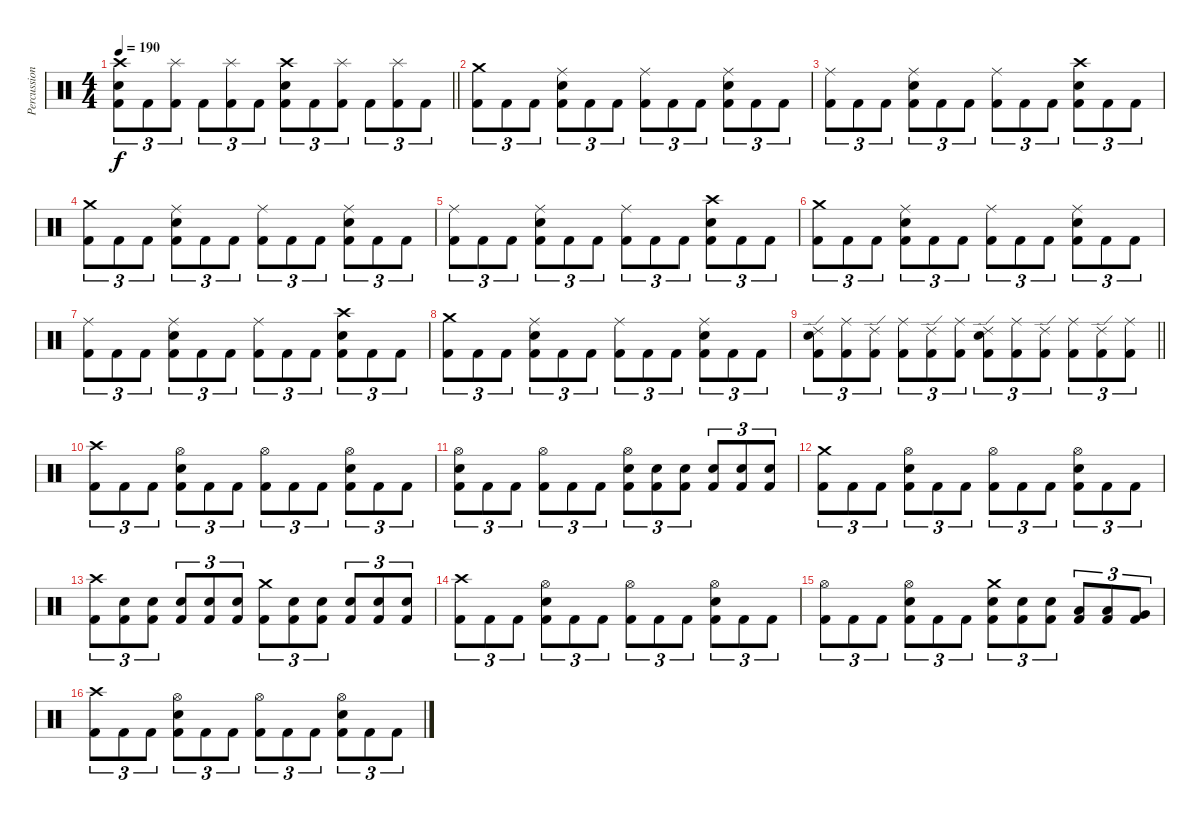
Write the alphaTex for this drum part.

\track ("Percussion" "Percussion") {instrument percussion}
\staff {score}
\articulation defaults
\ts (4 4)
\tempo 190
\clef neutral
\barLineRight lightlight
\ks c
("Crash high (hit)" "Snare (hit) 2" "Kick (hit) 2").8{tu (3 2) dy f} "Kick (hit) 2".8{tu (3 2)} ("Splash (hit)" "Kick (hit) 2").8{tu (3 2)} "Kick (hit) 2".8{tu (3 2)} ("Splash (hit)" "Kick (hit) 2").8{tu (3 2)} "Kick (hit) 2".8{tu (3 2)} ("Crash high (hit)" "Snare (hit) 2" "Kick (hit) 2").8{tu (3 2)} "Kick (hit) 2".8{tu (3 2)} ("Splash (hit)" "Kick (hit) 2").8{tu (3 2)} "Kick (hit) 2".8{tu (3 2)} ("Splash (hit)" "Kick (hit) 2").8{tu (3 2)} "Kick (hit) 2".8{tu (3 2)} |
("Crash medium (hit)" "Kick (hit) 2").8{tu (3 2)} "Kick (hit) 2".8{tu (3 2)} "Kick (hit) 2".8{tu (3 2)} ("Ride (middle)" "Snare (hit) 2" "Kick (hit) 2").8{tu (3 2)} "Kick (hit) 2".8{tu (3 2)} "Kick (hit) 2".8{tu (3 2)} ("Ride (middle)" "Kick (hit) 2").8{tu (3 2)} "Kick (hit) 2".8{tu (3 2)} "Kick (hit) 2".8{tu (3 2)} ("Ride (middle)" "Snare (hit) 2" "Kick (hit) 2").8{tu (3 2)} "Kick (hit) 2".8{tu (3 2)} "Kick (hit) 2".8{tu (3 2)} |
("Ride (middle)" "Kick (hit) 2").8{tu (3 2)} "Kick (hit) 2".8{tu (3 2)} "Kick (hit) 2".8{tu (3 2)} ("Ride (middle)" "Snare (hit) 2" "Kick (hit) 2").8{tu (3 2)} "Kick (hit) 2".8{tu (3 2)} "Kick (hit) 2".8{tu (3 2)} ("Ride (middle)" "Kick (hit) 2").8{tu (3 2)} "Kick (hit) 2".8{tu (3 2)} "Kick (hit) 2".8{tu (3 2)} ("Crash high (hit)" "Snare (hit) 2" "Kick (hit) 2").8{tu (3 2)} "Kick (hit) 2".8{tu (3 2)} "Kick (hit) 2".8{tu (3 2)} |
("Crash medium (hit)" "Kick (hit) 2").8{tu (3 2)} "Kick (hit) 2".8{tu (3 2)} "Kick (hit) 2".8{tu (3 2)} ("Ride (middle)" "Snare (hit) 2" "Kick (hit) 2").8{tu (3 2)} "Kick (hit) 2".8{tu (3 2)} "Kick (hit) 2".8{tu (3 2)} ("Ride (middle)" "Kick (hit) 2").8{tu (3 2)} "Kick (hit) 2".8{tu (3 2)} "Kick (hit) 2".8{tu (3 2)} ("Ride (middle)" "Snare (hit) 2" "Kick (hit) 2").8{tu (3 2)} "Kick (hit) 2".8{tu (3 2)} "Kick (hit) 2".8{tu (3 2)} |
("Ride (middle)" "Kick (hit) 2").8{tu (3 2)} "Kick (hit) 2".8{tu (3 2)} "Kick (hit) 2".8{tu (3 2)} ("Ride (middle)" "Snare (hit) 2" "Kick (hit) 2").8{tu (3 2)} "Kick (hit) 2".8{tu (3 2)} "Kick (hit) 2".8{tu (3 2)} ("Ride (middle)" "Kick (hit) 2").8{tu (3 2)} "Kick (hit) 2".8{tu (3 2)} "Kick (hit) 2".8{tu (3 2)} ("Crash high (hit)" "Snare (hit) 2" "Kick (hit) 2").8{tu (3 2)} "Kick (hit) 2".8{tu (3 2)} "Kick (hit) 2".8{tu (3 2)} |
("Crash medium (hit)" "Kick (hit) 2").8{tu (3 2)} "Kick (hit) 2".8{tu (3 2)} "Kick (hit) 2".8{tu (3 2)} ("Ride (middle)" "Snare (hit) 2" "Kick (hit) 2").8{tu (3 2)} "Kick (hit) 2".8{tu (3 2)} "Kick (hit) 2".8{tu (3 2)} ("Ride (middle)" "Kick (hit) 2").8{tu (3 2)} "Kick (hit) 2".8{tu (3 2)} "Kick (hit) 2".8{tu (3 2)} ("Ride (middle)" "Snare (hit) 2" "Kick (hit) 2").8{tu (3 2)} "Kick (hit) 2".8{tu (3 2)} "Kick (hit) 2".8{tu (3 2)} |
("Ride (middle)" "Kick (hit) 2").8{tu (3 2)} "Kick (hit) 2".8{tu (3 2)} "Kick (hit) 2".8{tu (3 2)} ("Ride (middle)" "Snare (hit) 2" "Kick (hit) 2").8{tu (3 2)} "Kick (hit) 2".8{tu (3 2)} "Kick (hit) 2".8{tu (3 2)} ("Ride (middle)" "Kick (hit) 2").8{tu (3 2)} "Kick (hit) 2".8{tu (3 2)} "Kick (hit) 2".8{tu (3 2)} ("Crash high (hit)" "Snare (hit) 2" "Kick (hit) 2").8{tu (3 2)} "Kick (hit) 2".8{tu (3 2)} "Kick (hit) 2".8{tu (3 2)} |
("Crash medium (hit)" "Kick (hit) 2").8{tu (3 2)} "Kick (hit) 2".8{tu (3 2)} "Kick (hit) 2".8{tu (3 2)} ("Ride (middle)" "Snare (hit) 2" "Kick (hit) 2").8{tu (3 2)} "Kick (hit) 2".8{tu (3 2)} "Kick (hit) 2".8{tu (3 2)} ("Ride (middle)" "Kick (hit) 2").8{tu (3 2)} "Kick (hit) 2".8{tu (3 2)} "Kick (hit) 2".8{tu (3 2)} ("Ride (middle)" "Snare (hit) 2" "Kick (hit) 2").8{tu (3 2)} "Kick (hit) 2".8{tu (3 2)} "Kick (hit) 2".8{tu (3 2)} |
\barLineRight lightlight
("Ride (edge) 2" "Snare (hit) 2" "Kick (hit) 2").8{tu (3 2)} ("Ride (middle)" "Kick (hit) 2").8{tu (3 2)} ("Ride (edge) 2" "Kick (hit) 2").8{tu (3 2)} ("Ride (middle)" "Kick (hit) 2").8{tu (3 2)} ("Ride (edge) 2" "Kick (hit) 2").8{tu (3 2)} ("Ride (middle)" "Kick (hit) 2").8{tu (3 2)} ("Ride (edge) 2" "Snare (hit) 2" "Kick (hit) 2").8{tu (3 2)} ("Ride (middle)" "Kick (hit) 2").8{tu (3 2)} ("Ride (edge) 2" "Kick (hit) 2").8{tu (3 2)} ("Ride (middle)" "Kick (hit) 2").8{tu (3 2)} ("Ride (edge) 2" "Kick (hit) 2").8{tu (3 2)} ("Ride (middle)" "Kick (hit) 2").8{tu (3 2)} |
("Crash high (hit)" "Kick (hit) 2").8{tu (3 2)} "Kick (hit) 2".8{tu (3 2)} "Kick (hit) 2".8{tu (3 2)} ("Hi-Hat (open)" "Snare (hit) 2" "Kick (hit) 2").8{tu (3 2)} "Kick (hit) 2".8{tu (3 2)} "Kick (hit) 2".8{tu (3 2)} ("Hi-Hat (open)" "Kick (hit) 2").8{tu (3 2)} "Kick (hit) 2".8{tu (3 2)} "Kick (hit) 2".8{tu (3 2)} ("Hi-Hat (open)" "Snare (hit) 2" "Kick (hit) 2").8{tu (3 2)} "Kick (hit) 2".8{tu (3 2)} "Kick (hit) 2".8{tu (3 2)} |
("Hi-Hat (open)" "Snare (hit) 2" "Kick (hit) 2").8{tu (3 2)} "Kick (hit) 2".8{tu (3 2)} "Kick (hit) 2".8{tu (3 2)} ("Hi-Hat (open)" "Kick (hit) 2").8{tu (3 2)} "Kick (hit) 2".8{tu (3 2)} "Kick (hit) 2".8{tu (3 2)} ("Hi-Hat (open)" "Snare (hit) 2" "Kick (hit) 2").8{tu (3 2)} ("Snare (hit) 2" "Kick (hit) 2").8{tu (3 2)} ("Snare (hit) 2" "Kick (hit) 2").8{tu (3 2)} ("Snare (hit) 2" "Kick (hit) 2").8{tu (3 2)} ("Snare (hit) 2" "Kick (hit) 2").8{tu (3 2)} ("Snare (hit) 2" "Kick (hit) 2").8{tu (3 2)} |
("Crash medium (hit)" "Kick (hit) 2").8{tu (3 2)} "Kick (hit) 2".8{tu (3 2)} "Kick (hit) 2".8{tu (3 2)} ("Hi-Hat (open)" "Snare (hit) 2" "Kick (hit) 2").8{tu (3 2)} "Kick (hit) 2".8{tu (3 2)} "Kick (hit) 2".8{tu (3 2)} ("Hi-Hat (open)" "Kick (hit) 2").8{tu (3 2)} "Kick (hit) 2".8{tu (3 2)} "Kick (hit) 2".8{tu (3 2)} ("Hi-Hat (open)" "Snare (hit) 2" "Kick (hit) 2").8{tu (3 2)} "Kick (hit) 2".8{tu (3 2)} "Kick (hit) 2".8{tu (3 2)} |
("Crash high (hit)" "Kick (hit) 2").8{tu (3 2)} ("Snare (hit) 2" "Kick (hit) 2").8{tu (3 2)} ("Snare (hit) 2" "Kick (hit) 2").8{tu (3 2)} ("Snare (hit) 2" "Kick (hit) 2").8{tu (3 2)} ("Snare (hit) 2" "Kick (hit) 2").8{tu (3 2)} ("Snare (hit) 2" "Kick (hit) 2").8{tu (3 2)} ("Crash medium (hit)" "Kick (hit) 2").8{tu (3 2)} ("Snare (hit) 2" "Kick (hit) 2").8{tu (3 2)} ("Snare (hit) 2" "Kick (hit) 2").8{tu (3 2)} ("Snare (hit) 2" "Kick (hit) 2").8{tu (3 2)} ("Snare (hit) 2" "Kick (hit) 2").8{tu (3 2)} ("Snare (hit) 2" "Kick (hit) 2").8{tu (3 2)} |
("Crash high (hit)" "Kick (hit) 2").8{tu (3 2)} "Kick (hit) 2".8{tu (3 2)} "Kick (hit) 2".8{tu (3 2)} ("Hi-Hat (open)" "Snare (hit) 2" "Kick (hit) 2").8{tu (3 2)} "Kick (hit) 2".8{tu (3 2)} "Kick (hit) 2".8{tu (3 2)} ("Hi-Hat (open)" "Kick (hit) 2").8{tu (3 2)} "Kick (hit) 2".8{tu (3 2)} "Kick (hit) 2".8{tu (3 2)} ("Hi-Hat (open)" "Snare (hit) 2" "Kick (hit) 2").8{tu (3 2)} "Kick (hit) 2".8{tu (3 2)} "Kick (hit) 2".8{tu (3 2)} |
("Hi-Hat (open)" "Kick (hit) 2").8{tu (3 2)} "Kick (hit) 2".8{tu (3 2)} "Kick (hit) 2".8{tu (3 2)} ("Hi-Hat (open)" "Snare (hit) 2" "Kick (hit) 2").8{tu (3 2)} "Kick (hit) 2".8{tu (3 2)} "Kick (hit) 2".8{tu (3 2)} ("Crash medium (hit)" "Snare (hit) 2" "Kick (hit) 2").8{tu (3 2)} ("Snare (hit) 2" "Kick (hit) 2").8{tu (3 2)} ("Snare (hit) 2" "Kick (hit) 2").8{tu (3 2)} ("Low Floor Tom (hit)" "Kick (hit) 2").8{tu (3 2)} ("Low Floor Tom (hit)" "Kick (hit) 2").8{tu (3 2)} ("Very Low Tom (hit)" "Kick (hit) 2").8{tu (3 2)} |
("Crash high (hit)" "Kick (hit) 2").8{tu (3 2)} "Kick (hit) 2".8{tu (3 2)} "Kick (hit) 2".8{tu (3 2)} ("Hi-Hat (open)" "Snare (hit) 2" "Kick (hit) 2").8{tu (3 2)} "Kick (hit) 2".8{tu (3 2)} "Kick (hit) 2".8{tu (3 2)} ("Hi-Hat (open)" "Kick (hit) 2").8{tu (3 2)} "Kick (hit) 2".8{tu (3 2)} "Kick (hit) 2".8{tu (3 2)} ("Hi-Hat (open)" "Snare (hit) 2" "Kick (hit) 2").8{tu (3 2)} "Kick (hit) 2".8{tu (3 2)} "Kick (hit) 2".8{tu (3 2)}
